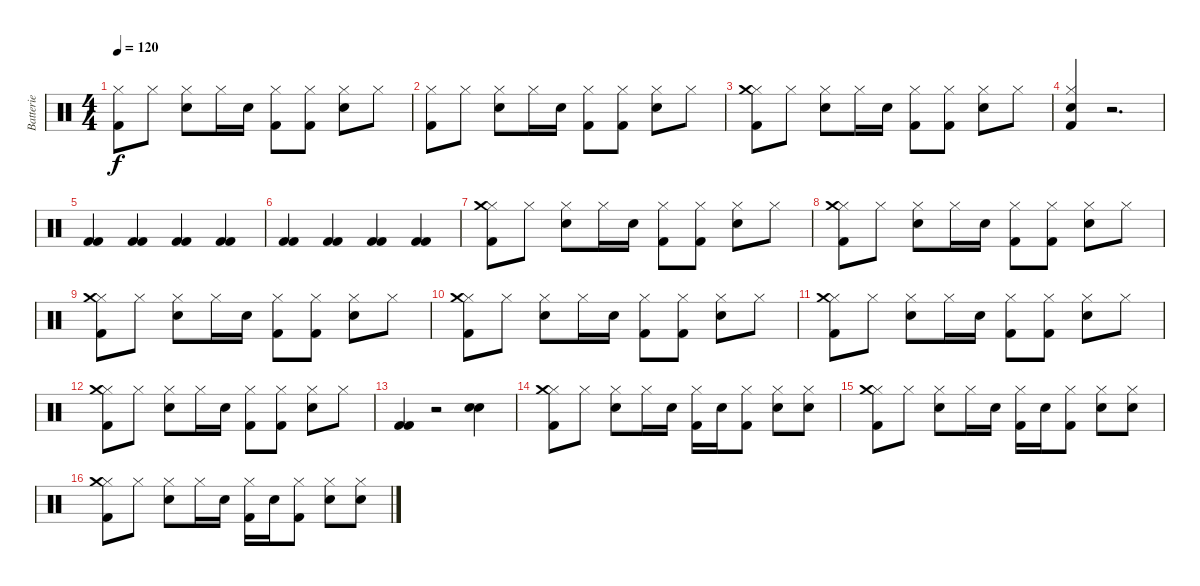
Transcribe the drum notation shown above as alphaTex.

\track ("Batterie" "Batterie") {instrument percussion}
\staff {score}
\articulation defaults
\ts (4 4)
\tempo 120
\clef neutral
\ks c
("Kick (hit) 2" "Hi-Hat (closed)").8{dy f} "Hi-Hat (closed)".8 ("Snare (hit) 2" "Hi-Hat (closed)").8 "Hi-Hat (closed)".16 "Snare (hit) 2".16 ("Kick (hit) 2" "Hi-Hat (closed)").8 ("Kick (hit) 2" "Hi-Hat (closed)").8 ("Snare (hit) 2" "Hi-Hat (closed)").8 "Hi-Hat (closed)".8 |
("Kick (hit) 2" "Hi-Hat (closed)").8 "Hi-Hat (closed)".8 ("Snare (hit) 2" "Hi-Hat (closed)").8 "Hi-Hat (closed)".16 "Snare (hit) 2".16 ("Kick (hit) 2" "Hi-Hat (closed)").8 ("Kick (hit) 2" "Hi-Hat (closed)").8 ("Snare (hit) 2" "Hi-Hat (closed)").8 "Hi-Hat (closed)".8 |
("Kick (hit) 2" "Hi-Hat (closed)" "Crash medium (hit)").8 "Hi-Hat (closed)".8 ("Snare (hit) 2" "Hi-Hat (closed)").8 "Hi-Hat (closed)".16 "Snare (hit) 2".16 ("Kick (hit) 2" "Hi-Hat (closed)").8 ("Kick (hit) 2" "Hi-Hat (closed)").8 ("Snare (hit) 2" "Hi-Hat (closed)").8 "Hi-Hat (closed)".8 |
("Kick (hit) 2" "Snare (hit) 2" "Hi-Hat (closed)").4 r.2{d} |
("Kick (hit) 2" "Kick (hit) 2").4 ("Kick (hit) 2" "Kick (hit) 2").4 ("Kick (hit) 2" "Kick (hit) 2").4 ("Kick (hit) 2" "Kick (hit) 2").4 |
("Kick (hit) 2" "Kick (hit) 2").4 ("Kick (hit) 2" "Kick (hit) 2").4 ("Kick (hit) 2" "Kick (hit) 2").4 ("Kick (hit) 2" "Kick (hit) 2").4 |
("Kick (hit) 2" "Hi-Hat (closed)" "Crash medium (hit)").8 "Hi-Hat (closed)".8 ("Snare (hit) 2" "Hi-Hat (closed)").8 "Hi-Hat (closed)".16 "Snare (hit) 2".16 ("Kick (hit) 2" "Hi-Hat (closed)").8 ("Kick (hit) 2" "Hi-Hat (closed)").8 ("Snare (hit) 2" "Hi-Hat (closed)").8 "Hi-Hat (closed)".8 |
("Kick (hit) 2" "Hi-Hat (closed)" "Crash medium (hit)").8 "Hi-Hat (closed)".8 ("Snare (hit) 2" "Hi-Hat (closed)").8 "Hi-Hat (closed)".16 "Snare (hit) 2".16 ("Kick (hit) 2" "Hi-Hat (closed)").8 ("Kick (hit) 2" "Hi-Hat (closed)").8 ("Snare (hit) 2" "Hi-Hat (closed)").8 "Hi-Hat (closed)".8 |
("Kick (hit) 2" "Hi-Hat (closed)" "Crash medium (hit)").8 "Hi-Hat (closed)".8 ("Snare (hit) 2" "Hi-Hat (closed)").8 "Hi-Hat (closed)".16 "Snare (hit) 2".16 ("Kick (hit) 2" "Hi-Hat (closed)").8 ("Kick (hit) 2" "Hi-Hat (closed)").8 ("Snare (hit) 2" "Hi-Hat (closed)").8 "Hi-Hat (closed)".8 |
("Kick (hit) 2" "Hi-Hat (closed)" "Crash medium (hit)").8 "Hi-Hat (closed)".8 ("Snare (hit) 2" "Hi-Hat (closed)").8 "Hi-Hat (closed)".16 "Snare (hit) 2".16 ("Kick (hit) 2" "Hi-Hat (closed)").8 ("Kick (hit) 2" "Hi-Hat (closed)").8 ("Snare (hit) 2" "Hi-Hat (closed)").8 "Hi-Hat (closed)".8 |
("Kick (hit) 2" "Hi-Hat (closed)" "Crash medium (hit)").8 "Hi-Hat (closed)".8 ("Snare (hit) 2" "Hi-Hat (closed)").8 "Hi-Hat (closed)".16 "Snare (hit) 2".16 ("Kick (hit) 2" "Hi-Hat (closed)").8 ("Kick (hit) 2" "Hi-Hat (closed)").8 ("Snare (hit) 2" "Hi-Hat (closed)").8 "Hi-Hat (closed)".8 |
("Kick (hit) 2" "Hi-Hat (closed)" "Crash medium (hit)").8 "Hi-Hat (closed)".8 ("Snare (hit) 2" "Hi-Hat (closed)").8 "Hi-Hat (closed)".16 "Snare (hit) 2".16 ("Kick (hit) 2" "Hi-Hat (closed)").8 ("Kick (hit) 2" "Hi-Hat (closed)").8 ("Snare (hit) 2" "Hi-Hat (closed)").8 "Hi-Hat (closed)".8 |
("Kick (hit) 2" "Kick (hit) 2").4 r.2 ("Snare (hit) 2" "Snare (hit) 2").4 |
("Kick (hit) 2" "Hi-Hat (closed)" "Crash medium (hit)").8 "Hi-Hat (closed)".8 ("Snare (hit) 2" "Hi-Hat (closed)").8 "Hi-Hat (closed)".16 "Snare (hit) 2".16 ("Kick (hit) 2" "Hi-Hat (closed)").16 "Snare (hit) 2".16 ("Kick (hit) 2" "Hi-Hat (closed)").8 ("Snare (hit) 2" "Hi-Hat (closed)").8 ("Snare (hit) 2" "Hi-Hat (closed)").8 |
("Kick (hit) 2" "Hi-Hat (closed)" "Crash medium (hit)").8 "Hi-Hat (closed)".8 ("Snare (hit) 2" "Hi-Hat (closed)").8 "Hi-Hat (closed)".16 "Snare (hit) 2".16 ("Kick (hit) 2" "Hi-Hat (closed)").16 "Snare (hit) 2".16 ("Kick (hit) 2" "Hi-Hat (closed)").8 ("Snare (hit) 2" "Hi-Hat (closed)").8 ("Snare (hit) 2" "Hi-Hat (closed)").8 |
("Kick (hit) 2" "Hi-Hat (closed)" "Crash medium (hit)").8 "Hi-Hat (closed)".8 ("Snare (hit) 2" "Hi-Hat (closed)").8 "Hi-Hat (closed)".16 "Snare (hit) 2".16 ("Kick (hit) 2" "Hi-Hat (closed)").16 "Snare (hit) 2".16 ("Kick (hit) 2" "Hi-Hat (closed)").8 ("Snare (hit) 2" "Hi-Hat (closed)").8 ("Snare (hit) 2" "Hi-Hat (closed)").8
